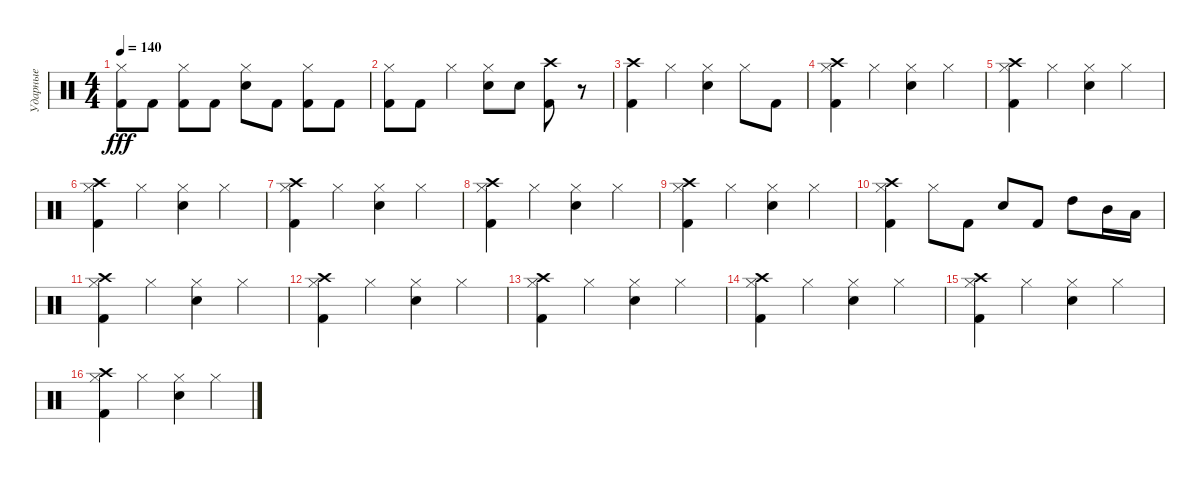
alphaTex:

\track ("Ударные" "Ударные") {instrument percussion}
\staff {score}
\articulation defaults
\ts (4 4)
\tempo 140
\clef neutral
\ks c
("Hi-Hat (closed)" "Kick (hit) 2").8{dy fff} "Kick (hit) 2".8 ("Kick (hit) 2" "Hi-Hat (closed)").8 "Kick (hit) 2".8 ("Electric Snare (hit)" "Hi-Hat (closed)").8 "Kick (hit) 2".8 ("Hi-Hat (closed)" "Kick (hit) 2").8 "Kick (hit) 2".8 |
("Kick (hit) 2" "Hi-Hat (closed)").8 "Kick (hit) 2".8 "Hi-Hat (closed)".4 ("Hi-Hat (closed)" "Electric Snare (hit)").8 "Electric Snare (hit)".8 ("Kick (hit) 2" "Crash high (hit)").8 r.8 |
("Kick (hit) 2" "Crash high (hit)").4 "Hi-Hat (closed)".4 ("Electric Snare (hit)" "Hi-Hat (closed)").4 "Hi-Hat (closed)".8 "Kick (hit) 2".8 |
("Kick (hit) 2" "Hi-Hat (closed)" "Crash high (hit)").4 "Hi-Hat (closed)".4 ("Electric Snare (hit)" "Hi-Hat (closed)").4 "Hi-Hat (closed)".4 |
("Kick (hit) 2" "Crash high (hit)" "Hi-Hat (closed)").4 "Hi-Hat (closed)".4 ("Electric Snare (hit)" "Hi-Hat (closed)").4 "Hi-Hat (closed)".4 |
("Kick (hit) 2" "Hi-Hat (closed)" "Crash high (hit)").4 "Hi-Hat (closed)".4 ("Electric Snare (hit)" "Hi-Hat (closed)").4 "Hi-Hat (closed)".4 |
("Kick (hit) 2" "Crash high (hit)" "Hi-Hat (closed)").4 "Hi-Hat (closed)".4 ("Electric Snare (hit)" "Hi-Hat (closed)").4 "Hi-Hat (closed)".4 |
("Kick (hit) 2" "Hi-Hat (closed)" "Crash high (hit)").4 "Hi-Hat (closed)".4 ("Electric Snare (hit)" "Hi-Hat (closed)").4 "Hi-Hat (closed)".4 |
("Kick (hit) 2" "Crash high (hit)" "Hi-Hat (closed)").4 "Hi-Hat (closed)".4 ("Electric Snare (hit)" "Hi-Hat (closed)").4 "Hi-Hat (closed)".4 |
("Kick (hit) 2" "Hi-Hat (closed)" "Crash high (hit)").4 "Hi-Hat (closed)".8 "Kick (hit) 2".8 "Electric Snare (hit)".8 "Kick (hit) 2".8 "High Tom (hit)".8 "Mid Tom (hit)".16 "Low Tom (hit)".16 |
("Kick (hit) 2" "Hi-Hat (closed)" "Crash high (hit)").4 "Hi-Hat (closed)".4 ("Electric Snare (hit)" "Hi-Hat (closed)").4 "Hi-Hat (closed)".4 |
("Kick (hit) 2" "Crash high (hit)" "Hi-Hat (closed)").4 "Hi-Hat (closed)".4 ("Electric Snare (hit)" "Hi-Hat (closed)").4 "Hi-Hat (closed)".4 |
("Kick (hit) 2" "Hi-Hat (closed)" "Crash high (hit)").4 "Hi-Hat (closed)".4 ("Electric Snare (hit)" "Hi-Hat (closed)").4 "Hi-Hat (closed)".4 |
("Kick (hit) 2" "Crash high (hit)" "Hi-Hat (closed)").4 "Hi-Hat (closed)".4 ("Electric Snare (hit)" "Hi-Hat (closed)").4 "Hi-Hat (closed)".4 |
("Kick (hit) 2" "Crash high (hit)" "Hi-Hat (closed)").4 "Hi-Hat (closed)".4 ("Electric Snare (hit)" "Hi-Hat (closed)").4 "Hi-Hat (closed)".4 |
("Kick (hit) 2" "Crash high (hit)" "Hi-Hat (closed)").4 "Hi-Hat (closed)".4 ("Electric Snare (hit)" "Hi-Hat (closed)").4 "Hi-Hat (closed)".4
